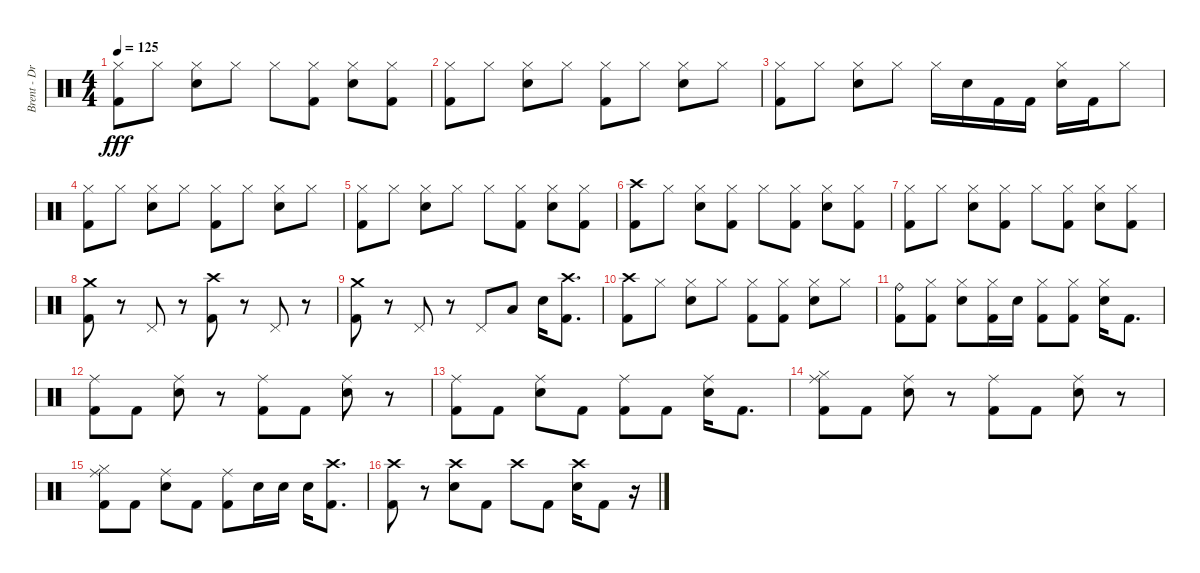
\track ("Brent - Drums" "Brent - Dr") {instrument percussion}
\staff {score}
\articulation defaults
\ts (4 4)
\tempo 125
\clef neutral
\ks c
("Hi-Hat (closed)" "Kick (hit) 2").8{dy fff} "Hi-Hat (closed)".8 ("Hi-Hat (closed)" "Snare (hit) 2").8 "Hi-Hat (closed)".8 "Hi-Hat (closed)".8 ("Hi-Hat (closed)" "Kick (hit) 2").8 ("Hi-Hat (closed)" "Snare (hit) 2").8 ("Hi-Hat (closed)" "Kick (hit) 2").8 |
("Hi-Hat (closed)" "Kick (hit) 2").8 "Hi-Hat (closed)".8 ("Hi-Hat (closed)" "Snare (hit) 2").8 "Hi-Hat (closed)".8 ("Hi-Hat (closed)" "Kick (hit) 2").8 "Hi-Hat (closed)".8 ("Hi-Hat (closed)" "Snare (hit) 2").8 "Hi-Hat (closed)".8 |
("Hi-Hat (closed)" "Kick (hit) 2").8 "Hi-Hat (closed)".8 ("Hi-Hat (closed)" "Snare (hit) 2").8 "Hi-Hat (closed)".8 "Hi-Hat (closed)".16 "Snare (hit) 2".16 "Kick (hit) 2".16 "Kick (hit) 2".16 ("Hi-Hat (closed)" "Snare (hit) 2").16 "Kick (hit) 2".16 "Hi-Hat (closed)".8 |
("Hi-Hat (closed)" "Kick (hit) 2").8 "Hi-Hat (closed)".8 ("Hi-Hat (closed)" "Snare (hit) 2").8 "Hi-Hat (closed)".8 ("Hi-Hat (closed)" "Kick (hit) 2").8 "Hi-Hat (closed)".8 ("Hi-Hat (closed)" "Snare (hit) 2").8 "Hi-Hat (closed)".8 |
("Hi-Hat (closed)" "Kick (hit) 2").8 "Hi-Hat (closed)".8 ("Hi-Hat (closed)" "Snare (hit) 2").8 "Hi-Hat (closed)".8 "Hi-Hat (closed)".8 ("Hi-Hat (closed)" "Kick (hit) 2").8 ("Hi-Hat (closed)" "Snare (hit) 2").8 ("Hi-Hat (closed)" "Kick (hit) 2").8 |
("Crash high (hit)" "Kick (hit) 2").8 "Hi-Hat (closed)".8 ("Hi-Hat (closed)" "Snare (hit) 2").8 ("Hi-Hat (closed)" "Kick (hit) 2").8 "Hi-Hat (closed)".8 ("Hi-Hat (closed)" "Kick (hit) 2").8 ("Hi-Hat (closed)" "Snare (hit) 2").8 ("Hi-Hat (closed)" "Kick (hit) 2").8 |
("Hi-Hat (closed)" "Kick (hit) 2").8 "Hi-Hat (closed)".8 ("Hi-Hat (closed)" "Snare (hit) 2").8 ("Hi-Hat (closed)" "Kick (hit) 2").8 "Hi-Hat (closed)".8 ("Hi-Hat (closed)" "Kick (hit) 2").8 ("Hi-Hat (closed)" "Snare (hit) 2").8 ("Hi-Hat (closed)" "Kick (hit) 2").8 |
("Crash medium (hit)" "Kick (hit) 2").8 r.8 "Pedal Hi-Hat (hit)".8 r.8 ("Crash high (hit)" "Kick (hit) 2").8 r.8 "Pedal Hi-Hat (hit)".8 r.8 |
("Crash medium (hit)" "Kick (hit) 2").8 r.8 "Pedal Hi-Hat (hit)".8 r.8 "Pedal Hi-Hat (hit)".8 "Low Tom (hit)".8 "Snare (hit) 2".16 ("Crash high (hit)" "Kick (hit) 2").8{d} |
("Crash high (hit)" "Kick (hit) 2").8 "Hi-Hat (closed)".8 ("Hi-Hat (closed)" "Snare (hit) 2").8 "Hi-Hat (closed)".8 ("Hi-Hat (closed)" "Kick (hit) 2").8 ("Hi-Hat (closed)" "Kick (hit) 2").8 ("Hi-Hat (closed)" "Snare (hit) 2").8 "Hi-Hat (closed)".8 |
("Ride (bell)" "Kick (hit) 2").8 ("Hi-Hat (closed)" "Kick (hit) 2").8 ("Hi-Hat (closed)" "Snare (hit) 2").8 ("Hi-Hat (closed)" "Kick (hit) 2").16 "Snare (hit) 2".16 ("Hi-Hat (closed)" "Kick (hit) 2").8 ("Hi-Hat (closed)" "Kick (hit) 2").8 ("Hi-Hat (closed)" "Snare (hit) 2").16 "Kick (hit) 2".8{d} |
("Ride (middle)" "Kick (hit) 2").8 "Kick (hit) 2".8 ("Ride (middle)" "Snare (hit) 2").8 r.8 ("Ride (middle)" "Kick (hit) 2").8 "Kick (hit) 2".8 ("Ride (middle)" "Snare (hit) 2").8 r.8 |
("Ride (middle)" "Kick (hit) 2").8 "Kick (hit) 2".8 ("Ride (middle)" "Snare (hit) 2").8 "Kick (hit) 2".8 ("Ride (middle)" "Kick (hit) 2").8 "Kick (hit) 2".8 ("Ride (middle)" "Snare (hit) 2").16 "Kick (hit) 2".8{d} |
("Ride (middle)" "Hi-Hat (closed)" "Kick (hit) 2").8 "Kick (hit) 2".8 ("Ride (middle)" "Snare (hit) 2").8 r.8 ("Ride (middle)" "Kick (hit) 2").8 "Kick (hit) 2".8 ("Ride (middle)" "Snare (hit) 2").8 r.8 |
("Ride (middle)" "Hi-Hat (closed)" "Kick (hit) 2").8 "Kick (hit) 2".8 ("Ride (middle)" "Snare (hit) 2").8 "Kick (hit) 2".8 ("Ride (middle)" "Kick (hit) 2").8 "Snare (hit) 2".16 "Snare (hit) 2".16 "Snare (hit) 2".16 ("Crash high (hit)" "Kick (hit) 2").8{d} |
("Crash high (hit)" "Kick (hit) 2").8 r.8 ("Crash high (hit)" "Snare (hit) 2").8 "Kick (hit) 2".8 "Crash high (hit)".8 "Kick (hit) 2".8 ("Crash high (hit)" "Snare (hit) 2").16 "Kick (hit) 2".8 r.16
